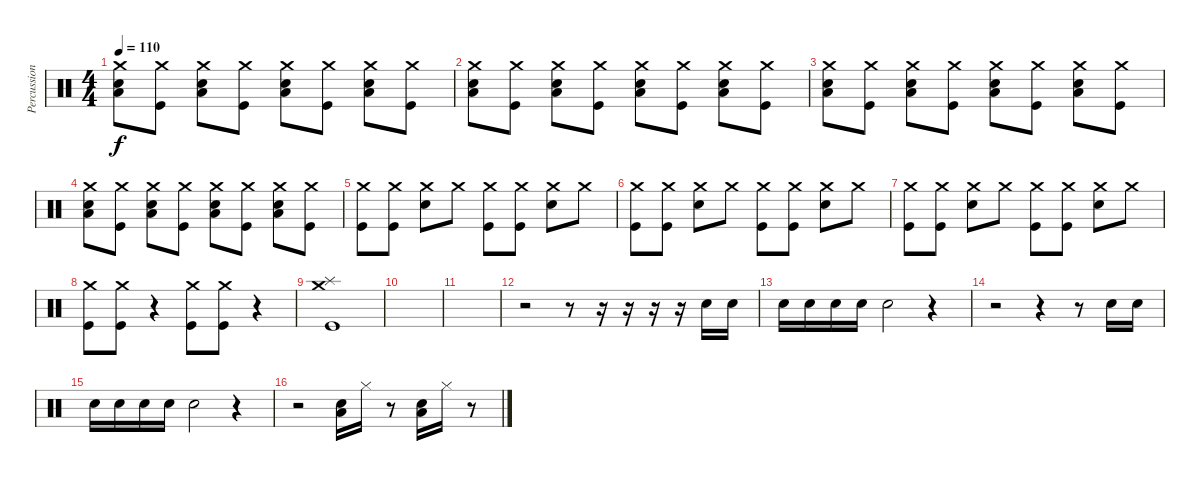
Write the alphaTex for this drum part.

\track ("Percussion" "Percussion") {instrument percussion}
\staff {score}
\articulation defaults
\ts (4 4)
\tempo 110
\clef neutral
\ks c
("Crash medium (hit)" "Low Floor Tom (hit)" "Electric Snare (hit)").8{dy f} ("Crash medium (hit)" "Kick (hit)").8 ("Crash medium (hit)" "Electric Snare (hit)" "Low Floor Tom (hit)").8 ("Crash medium (hit)" "Kick (hit)").8 ("Crash medium (hit)" "Electric Snare (hit)" "Low Floor Tom (hit)").8 ("Crash medium (hit)" "Kick (hit)").8 ("Crash medium (hit)" "Electric Snare (hit)" "Low Floor Tom (hit)").8 ("Crash medium (hit)" "Kick (hit)").8 |
("Crash medium (hit)" "Low Floor Tom (hit)" "Electric Snare (hit)").8 ("Crash medium (hit)" "Kick (hit)").8 ("Crash medium (hit)" "Electric Snare (hit)" "Low Floor Tom (hit)").8 ("Crash medium (hit)" "Kick (hit)").8 ("Crash medium (hit)" "Electric Snare (hit)" "Low Floor Tom (hit)").8 ("Crash medium (hit)" "Kick (hit)").8 ("Crash medium (hit)" "Electric Snare (hit)" "Low Floor Tom (hit)").8 ("Crash medium (hit)" "Kick (hit)").8 |
("Crash medium (hit)" "Low Floor Tom (hit)" "Electric Snare (hit)").8 ("Crash medium (hit)" "Kick (hit)").8 ("Crash medium (hit)" "Electric Snare (hit)" "Low Floor Tom (hit)").8 ("Crash medium (hit)" "Kick (hit)").8 ("Crash medium (hit)" "Electric Snare (hit)" "Low Floor Tom (hit)").8 ("Crash medium (hit)" "Kick (hit)").8 ("Crash medium (hit)" "Electric Snare (hit)" "Low Floor Tom (hit)").8 ("Crash medium (hit)" "Kick (hit)").8 |
("Crash medium (hit)" "Low Floor Tom (hit)" "Electric Snare (hit)").8 ("Crash medium (hit)" "Kick (hit)").8 ("Crash medium (hit)" "Electric Snare (hit)" "Low Floor Tom (hit)").8 ("Crash medium (hit)" "Kick (hit)").8 ("Crash medium (hit)" "Electric Snare (hit)" "Low Floor Tom (hit)").8 ("Crash medium (hit)" "Kick (hit)").8 ("Crash medium (hit)" "Electric Snare (hit)" "Low Floor Tom (hit)").8 ("Crash medium (hit)" "Kick (hit)").8 |
("Crash medium (hit)" "Kick (hit)").8 ("Crash medium (hit)" "Kick (hit)").8 ("Crash medium (hit)" "Electric Snare (hit)").8 "Crash medium (hit)".8 ("Crash medium (hit)" "Kick (hit)").8 ("Crash medium (hit)" "Kick (hit)").8 ("Crash medium (hit)" "Electric Snare (hit)").8 "Crash medium (hit)".8 |
("Crash medium (hit)" "Kick (hit)").8 ("Crash medium (hit)" "Kick (hit)").8 ("Crash medium (hit)" "Electric Snare (hit)").8 "Crash medium (hit)".8 ("Crash medium (hit)" "Kick (hit)").8 ("Crash medium (hit)" "Kick (hit)").8 ("Crash medium (hit)" "Electric Snare (hit)").8 "Crash medium (hit)".8 |
("Crash medium (hit)" "Kick (hit)").8 ("Crash medium (hit)" "Kick (hit)").8 ("Crash medium (hit)" "Electric Snare (hit)").8 "Crash medium (hit)".8 ("Crash medium (hit)" "Kick (hit)").8 ("Crash medium (hit)" "Kick (hit)").8 ("Crash medium (hit)" "Electric Snare (hit)").8 "Crash medium (hit)".8 |
("Kick (hit)" "Crash medium (hit)").8 ("Kick (hit)" "Crash medium (hit)").8 r.4 ("Kick (hit)" "Crash medium (hit)").8 ("Kick (hit)" "Crash medium (hit)").8 r.4 |
("Splash (hit)" "Crash medium (hit)" "Kick (hit)").1 |
|
|
r.2 r.8 r.16 r.16 r.16 r.16 "Electric Snare (hit)".16 "Electric Snare (hit)".16 |
"Electric Snare (hit)".16 "Electric Snare (hit)".16 "Electric Snare (hit)".16 "Electric Snare (hit)".16 "Electric Snare (hit)".2 r.4 |
r.2 r.4 r.8 "Electric Snare (hit)".16 "Electric Snare (hit)".16 |
"Electric Snare (hit)".16 "Electric Snare (hit)".16 "Electric Snare (hit)".16 "Electric Snare (hit)".16 "Electric Snare (hit)".2 r.4 |
r.2 ("Low Floor Tom (hit)" "Electric Snare (hit)").16 "Hi-Hat (closed)".16 r.8 ("Low Floor Tom (hit)" "Electric Snare (hit)").16 "Hi-Hat (closed)".16 r.8
